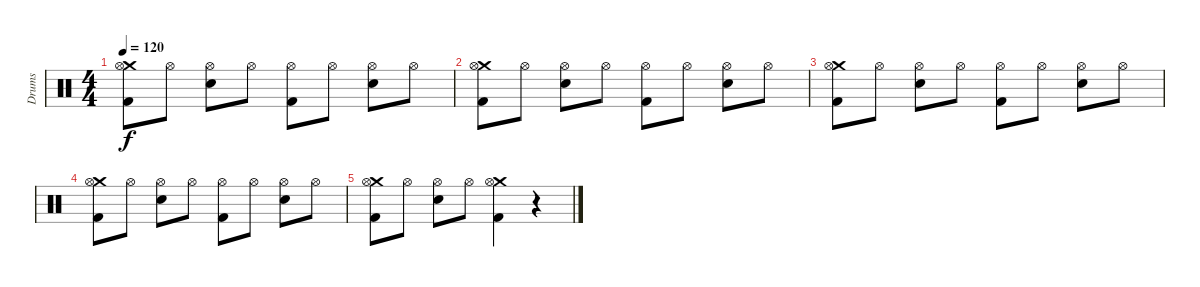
\track ("Drums" "Drums") {instrument percussion}
\staff {score}
\articulation defaults
\ts (4 4)
\tempo 120
\clef neutral
\ks c
("Crash medium (hit)" "Hi-Hat (open)" "Kick (hit) 2").8{dy f} "Hi-Hat (open)".8 ("Hi-Hat (open)" "Snare (hit) 2").8 "Hi-Hat (open)".8 ("Hi-Hat (open)" "Kick (hit) 2").8 "Hi-Hat (open)".8 ("Hi-Hat (open)" "Snare (hit) 2").8 "Hi-Hat (open)".8 |
("Crash medium (hit)" "Hi-Hat (open)" "Kick (hit) 2").8 "Hi-Hat (open)".8 ("Hi-Hat (open)" "Snare (hit) 2").8 "Hi-Hat (open)".8 ("Hi-Hat (open)" "Kick (hit) 2").8 "Hi-Hat (open)".8 ("Hi-Hat (open)" "Snare (hit) 2").8 "Hi-Hat (open)".8 |
("Crash medium (hit)" "Hi-Hat (open)" "Kick (hit) 2").8 "Hi-Hat (open)".8 ("Hi-Hat (open)" "Snare (hit) 2").8 "Hi-Hat (open)".8 ("Hi-Hat (open)" "Kick (hit) 2").8 "Hi-Hat (open)".8 ("Hi-Hat (open)" "Snare (hit) 2").8 "Hi-Hat (open)".8 |
("Crash medium (hit)" "Hi-Hat (open)" "Kick (hit) 2").8 "Hi-Hat (open)".8 ("Hi-Hat (open)" "Snare (hit) 2").8 "Hi-Hat (open)".8 ("Hi-Hat (open)" "Kick (hit) 2").8 "Hi-Hat (open)".8 ("Hi-Hat (open)" "Snare (hit) 2").8 "Hi-Hat (open)".8 |
("Crash medium (hit)" "Hi-Hat (open)" "Kick (hit) 2").8 "Hi-Hat (open)".8 ("Hi-Hat (open)" "Snare (hit) 2").8 "Hi-Hat (open)".8 ("Crash medium (hit)" "Hi-Hat (open)" "Kick (hit) 2").4 r.4
